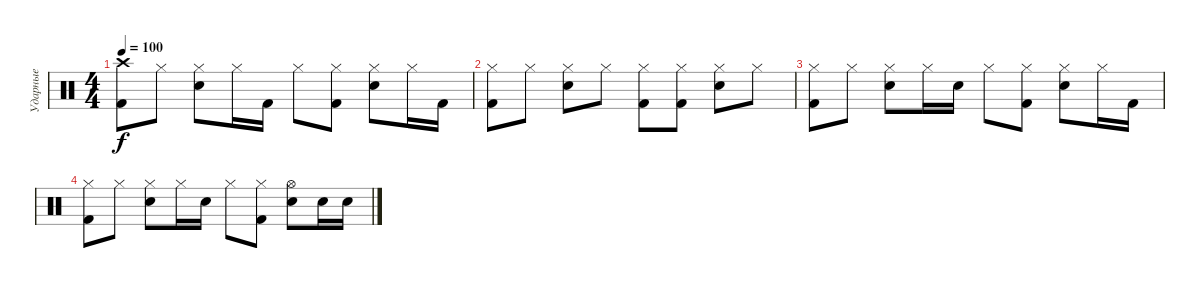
\track ("Ударные" "Ударные") {instrument percussion}
\staff {score}
\articulation defaults
\ts (4 4)
\tempo 100
\clef neutral
\ks c
("Crash high (hit)" "Kick (hit) 2").8{dy f} "Hi-Hat (closed)".8 ("Hi-Hat (closed)" "Electric Snare (hit)").8 "Hi-Hat (closed)".16 "Kick (hit) 2".16 "Hi-Hat (closed)".8 ("Hi-Hat (closed)" "Kick (hit) 2").8 ("Hi-Hat (closed)" "Electric Snare (hit)").8 "Hi-Hat (closed)".16 "Kick (hit) 2".16 |
("Hi-Hat (closed)" "Kick (hit) 2").8 "Hi-Hat (closed)".8 ("Hi-Hat (closed)" "Electric Snare (hit)").8 "Hi-Hat (closed)".8 ("Hi-Hat (closed)" "Kick (hit) 2").8 ("Hi-Hat (closed)" "Kick (hit) 2").8 ("Hi-Hat (closed)" "Electric Snare (hit)").8 "Hi-Hat (closed)".8 |
("Hi-Hat (closed)" "Kick (hit) 2").8 "Hi-Hat (closed)".8 ("Hi-Hat (closed)" "Electric Snare (hit)").8 "Hi-Hat (closed)".16 "Electric Snare (hit)".16 "Hi-Hat (closed)".8 ("Hi-Hat (closed)" "Kick (hit) 2").8 ("Hi-Hat (closed)" "Electric Snare (hit)").8 "Hi-Hat (closed)".16 "Kick (hit) 2".16 |
("Hi-Hat (closed)" "Kick (hit) 2").8 "Hi-Hat (closed)".8 ("Hi-Hat (closed)" "Electric Snare (hit)").8 "Hi-Hat (closed)".16 "Electric Snare (hit)".16 "Hi-Hat (closed)".8 ("Hi-Hat (closed)" "Kick (hit) 2").8 ("Hi-Hat (open)" "Electric Snare (hit)").8 "Electric Snare (hit)".16 "Electric Snare (hit)".16
